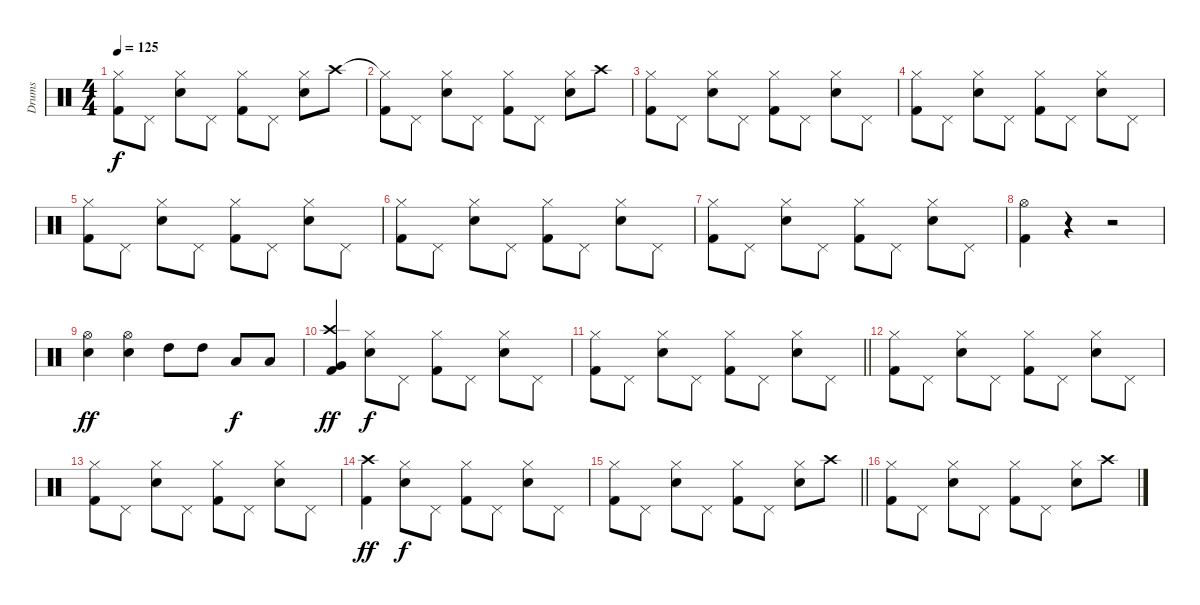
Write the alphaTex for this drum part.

\track ("Drums" "Drums") {instrument percussion}
\staff {score}
\articulation defaults
\ts (4 4)
\tempo 125
\clef neutral
\ks c
("Hi-Hat (closed)"{t} "Kick (hit) 2").8{dy f} "Pedal Hi-Hat (hit)".8 ("Hi-Hat (closed)" "Electric Snare (hit)").8 "Pedal Hi-Hat (hit)".8 ("Hi-Hat (closed)" "Kick (hit) 2").8 "Pedal Hi-Hat (hit)".8 ("Hi-Hat (closed)" "Electric Snare (hit)").8 "Crash high (hit)".8 |
("Hi-Hat (closed)"{t} "Kick (hit) 2").8 "Pedal Hi-Hat (hit)".8 ("Hi-Hat (closed)" "Electric Snare (hit)").8 "Pedal Hi-Hat (hit)".8 ("Hi-Hat (closed)" "Kick (hit) 2").8 "Pedal Hi-Hat (hit)".8 ("Hi-Hat (closed)" "Electric Snare (hit)").8 "Crash high (hit)".8 |
("Hi-Hat (closed)" "Kick (hit) 2").8 "Pedal Hi-Hat (hit)".8 ("Hi-Hat (closed)" "Electric Snare (hit)").8 "Pedal Hi-Hat (hit)".8 ("Hi-Hat (closed)" "Kick (hit) 2").8 "Pedal Hi-Hat (hit)".8 ("Hi-Hat (closed)" "Electric Snare (hit)").8 "Pedal Hi-Hat (hit)".8 |
("Hi-Hat (closed)" "Kick (hit) 2").8 "Pedal Hi-Hat (hit)".8 ("Hi-Hat (closed)" "Electric Snare (hit)").8 "Pedal Hi-Hat (hit)".8 ("Hi-Hat (closed)" "Kick (hit) 2").8 "Pedal Hi-Hat (hit)".8 ("Hi-Hat (closed)" "Electric Snare (hit)").8 "Pedal Hi-Hat (hit)".8 |
("Hi-Hat (closed)" "Kick (hit) 2").8 "Pedal Hi-Hat (hit)".8 ("Hi-Hat (closed)" "Electric Snare (hit)").8 "Pedal Hi-Hat (hit)".8 ("Hi-Hat (closed)" "Kick (hit) 2").8 "Pedal Hi-Hat (hit)".8 ("Hi-Hat (closed)" "Electric Snare (hit)").8 "Pedal Hi-Hat (hit)".8 |
("Hi-Hat (closed)" "Kick (hit) 2").8 "Pedal Hi-Hat (hit)".8 ("Hi-Hat (closed)" "Electric Snare (hit)").8 "Pedal Hi-Hat (hit)".8 ("Hi-Hat (closed)" "Kick (hit) 2").8 "Pedal Hi-Hat (hit)".8 ("Hi-Hat (closed)" "Electric Snare (hit)").8 "Pedal Hi-Hat (hit)".8 |
("Hi-Hat (closed)" "Kick (hit) 2").8 "Pedal Hi-Hat (hit)".8 ("Hi-Hat (closed)" "Electric Snare (hit)").8 "Pedal Hi-Hat (hit)".8 ("Hi-Hat (closed)" "Kick (hit) 2").8 "Pedal Hi-Hat (hit)".8 ("Hi-Hat (closed)" "Electric Snare (hit)").8 "Pedal Hi-Hat (hit)".8 |
("Hi-Hat (open)" "Kick (hit) 2").4 r.4 r.2 |
("Hi-Hat (open)" "Snare (hit) 2").4{dy ff} ("Hi-Hat (open)" "Snare (hit) 2").4 "High Tom (hit)".8 "High Tom (hit)".8 "Low Tom (hit)".8{dy f} "Low Tom (hit)".8 |
("Crash high (hit)" "Very Low Tom (hit)" "Kick (hit) 2").4{dy ff} ("Hi-Hat (closed)" "Electric Snare (hit)").8{dy f} "Pedal Hi-Hat (hit)".8 ("Hi-Hat (closed)" "Kick (hit) 2").8 "Pedal Hi-Hat (hit)".8 ("Hi-Hat (closed)" "Electric Snare (hit)").8 "Pedal Hi-Hat (hit)".8 |
\barLineRight lightlight
("Hi-Hat (closed)" "Kick (hit) 2").8 "Pedal Hi-Hat (hit)".8 ("Hi-Hat (closed)" "Electric Snare (hit)").8 "Pedal Hi-Hat (hit)".8 ("Hi-Hat (closed)" "Kick (hit) 2").8 "Pedal Hi-Hat (hit)".8 ("Hi-Hat (closed)" "Electric Snare (hit)").8 "Pedal Hi-Hat (hit)".8 |
("Hi-Hat (closed)" "Kick (hit) 2").8 "Pedal Hi-Hat (hit)".8 ("Hi-Hat (closed)" "Electric Snare (hit)").8 "Pedal Hi-Hat (hit)".8 ("Hi-Hat (closed)" "Kick (hit) 2").8 "Pedal Hi-Hat (hit)".8 ("Hi-Hat (closed)" "Electric Snare (hit)").8 "Pedal Hi-Hat (hit)".8 |
("Hi-Hat (closed)" "Kick (hit) 2").8 "Pedal Hi-Hat (hit)".8 ("Hi-Hat (closed)" "Electric Snare (hit)").8 "Pedal Hi-Hat (hit)".8 ("Hi-Hat (closed)" "Kick (hit) 2").8 "Pedal Hi-Hat (hit)".8 ("Hi-Hat (closed)" "Electric Snare (hit)").8 "Pedal Hi-Hat (hit)".8 |
("Crash high (hit)" "Kick (hit) 2").4{dy ff} ("Hi-Hat (closed)" "Electric Snare (hit)").8{dy f} "Pedal Hi-Hat (hit)".8 ("Hi-Hat (closed)" "Kick (hit) 2").8 "Pedal Hi-Hat (hit)".8 ("Hi-Hat (closed)" "Electric Snare (hit)").8 "Pedal Hi-Hat (hit)".8 |
\barLineRight lightlight
("Hi-Hat (closed)" "Kick (hit) 2").8 "Pedal Hi-Hat (hit)".8 ("Hi-Hat (closed)" "Electric Snare (hit)").8 "Pedal Hi-Hat (hit)".8 ("Hi-Hat (closed)" "Kick (hit) 2").8 "Pedal Hi-Hat (hit)".8 ("Hi-Hat (closed)" "Electric Snare (hit)").8 "Crash high (hit)".8 |
("Hi-Hat (closed)" "Kick (hit) 2").8 "Pedal Hi-Hat (hit)".8 ("Hi-Hat (closed)" "Electric Snare (hit)").8 "Pedal Hi-Hat (hit)".8 ("Hi-Hat (closed)" "Kick (hit) 2").8 "Pedal Hi-Hat (hit)".8 ("Hi-Hat (closed)" "Electric Snare (hit)").8 "Crash high (hit)".8
